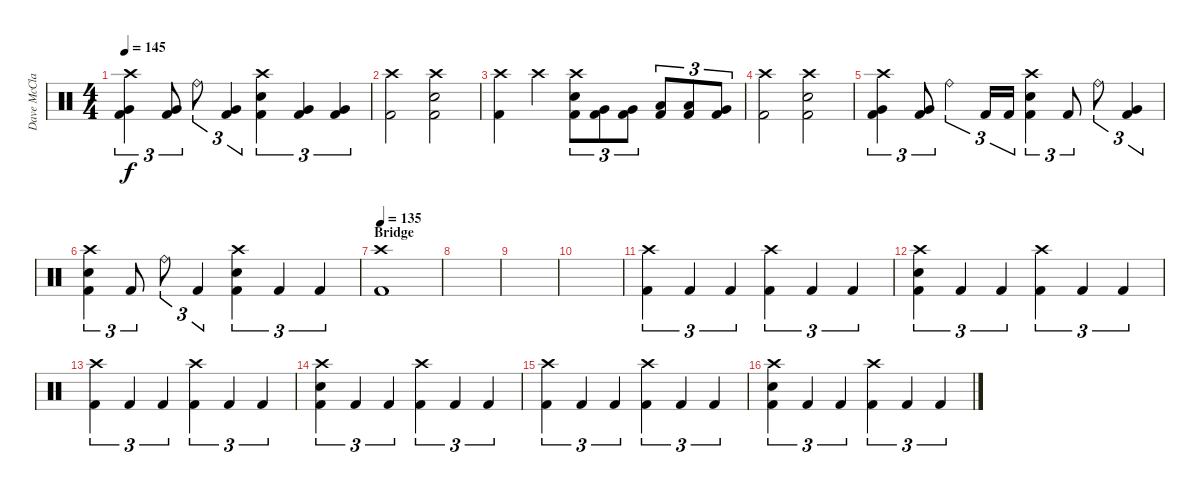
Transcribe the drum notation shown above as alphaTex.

\track ("Dave McClain" "Dave McCla") {instrument percussion}
\staff {score}
\articulation defaults
\ts (4 4)
\tempo 145
\clef neutral
\ks c
("Crash high (hit)" "Very Low Tom (hit)" "Kick (hit) 2").4{tu (3 2) dy f} ("Very Low Tom (hit)" "Kick (hit) 2").8{tu (3 2)} "Ride (bell)".8{tu (3 2)} ("Very Low Tom (hit)" "Kick (hit) 2").4{tu (3 2)} ("Crash high (hit)" "Electric Snare (hit)" "Kick (hit) 2").4{tu (3 2)} ("Very Low Tom (hit)" "Kick (hit) 2").4{tu (3 2)} ("Very Low Tom (hit)" "Kick (hit) 2").4{tu (3 2)} |
("Crash high (hit)" "Kick (hit) 2").2 ("Crash high (hit)" "Electric Snare (hit)" "Kick (hit) 2").2 |
("Crash high (hit)" "Kick (hit) 2").4 "Crash high (hit)".4 ("Crash high (hit)" "Electric Snare (hit)" "Kick (hit) 2").8{tu (3 2)} ("Very Low Tom (hit)" "Kick (hit) 2").8{tu (3 2)} ("Very Low Tom (hit)" "Kick (hit) 2").8{tu (3 2)} ("Low Tom (hit)" "Kick (hit) 2").8{tu (3 2)} ("Low Tom (hit)" "Kick (hit) 2").8{tu (3 2)} ("Very Low Tom (hit)" "Kick (hit) 2").8{tu (3 2)} |
("Crash high (hit)" "Kick (hit) 2").2 ("Crash high (hit)" "Electric Snare (hit)" "Kick (hit) 2").2 |
("Crash high (hit)" "Very Low Tom (hit)" "Kick (hit) 2").4{tu (3 2)} ("Very Low Tom (hit)" "Kick (hit) 2").8{tu (3 2)} "Ride (bell)".4{tu (3 2)} "Kick (hit) 2".16{tu (3 2)} "Kick (hit) 2".16{tu (3 2)} ("Crash high (hit)" "Electric Snare (hit)" "Kick (hit) 2").4{tu (3 2)} "Kick (hit) 2".8{tu (3 2)} "Ride (bell)".8{tu (3 2)} ("Very Low Tom (hit)" "Kick (hit) 2").4{tu (3 2)} |
("Crash high (hit)" "Electric Snare (hit)" "Kick (hit) 2").4{tu (3 2)} "Kick (hit) 2".8{tu (3 2)} "Ride (bell)".8{tu (3 2)} "Kick (hit) 2".4{tu (3 2)} ("Crash high (hit)" "Electric Snare (hit)" "Kick (hit) 2").4{tu (3 2)} "Kick (hit) 2".4{tu (3 2)} "Kick (hit) 2".4{tu (3 2)} |
\section ("" "Bridge")
\tempo 135
("Crash high (hit)" "Kick (hit) 2").1 |
|
|
|
("Crash high (hit)" "Kick (hit) 2").4{tu (3 2)} "Kick (hit) 2".4{tu (3 2)} "Kick (hit) 2".4{tu (3 2)} ("Crash high (hit)" "Kick (hit) 2").4{tu (3 2)} "Kick (hit) 2".4{tu (3 2)} "Kick (hit) 2".4{tu (3 2)} |
("Crash high (hit)" "Electric Snare (hit)" "Kick (hit) 2").4{tu (3 2)} "Kick (hit) 2".4{tu (3 2)} "Kick (hit) 2".4{tu (3 2)} ("Crash high (hit)" "Kick (hit) 2").4{tu (3 2)} "Kick (hit) 2".4{tu (3 2)} "Kick (hit) 2".4{tu (3 2)} |
("Crash high (hit)" "Kick (hit) 2").4{tu (3 2)} "Kick (hit) 2".4{tu (3 2)} "Kick (hit) 2".4{tu (3 2)} ("Crash high (hit)" "Kick (hit) 2").4{tu (3 2)} "Kick (hit) 2".4{tu (3 2)} "Kick (hit) 2".4{tu (3 2)} |
("Crash high (hit)" "Electric Snare (hit)" "Kick (hit) 2").4{tu (3 2)} "Kick (hit) 2".4{tu (3 2)} "Kick (hit) 2".4{tu (3 2)} ("Crash high (hit)" "Kick (hit) 2").4{tu (3 2)} "Kick (hit) 2".4{tu (3 2)} "Kick (hit) 2".4{tu (3 2)} |
("Crash high (hit)" "Kick (hit) 2").4{tu (3 2)} "Kick (hit) 2".4{tu (3 2)} "Kick (hit) 2".4{tu (3 2)} ("Crash high (hit)" "Kick (hit) 2").4{tu (3 2)} "Kick (hit) 2".4{tu (3 2)} "Kick (hit) 2".4{tu (3 2)} |
("Crash high (hit)" "Electric Snare (hit)" "Kick (hit) 2").4{tu (3 2)} "Kick (hit) 2".4{tu (3 2)} "Kick (hit) 2".4{tu (3 2)} ("Crash high (hit)" "Kick (hit) 2").4{tu (3 2)} "Kick (hit) 2".4{tu (3 2)} "Kick (hit) 2".4{tu (3 2)}
